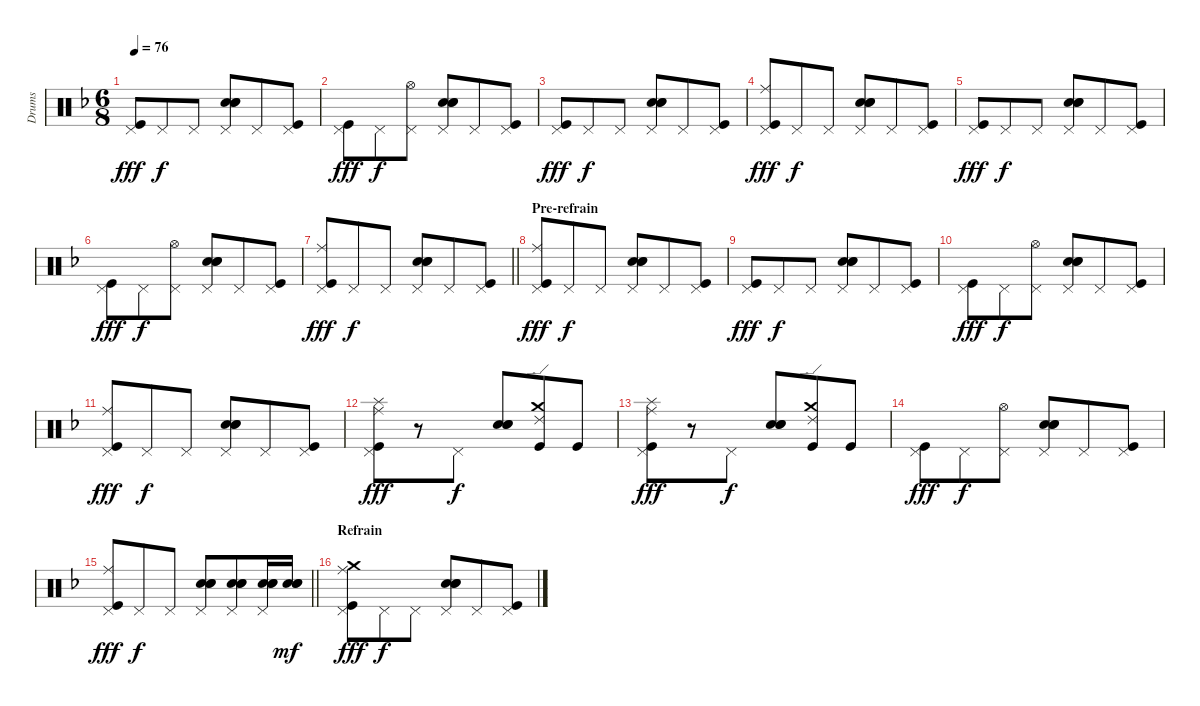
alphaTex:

\track ("Drums" "Drums") {instrument percussion}
\staff {score}
\articulation defaults
\ts (6 8)
\tempo 76
\clef neutral
\ks f
("Pedal Hi-Hat (hit)" "Kick (hit)").8{dy fff} "Pedal Hi-Hat (hit)".8{dy f} "Pedal Hi-Hat (hit)".8 ("Pedal Hi-Hat (hit)" "Metronome (bell)" "Electric Snare (hit)" "Snare (hit) 2").8 "Pedal Hi-Hat (hit)".8 ("Pedal Hi-Hat (hit)" "Kick (hit)").8 |
("Pedal Hi-Hat (hit)" "Kick (hit)").8{dy fff} "Pedal Hi-Hat (hit)".8{dy f} ("Pedal Hi-Hat (hit)" "Hi-Hat (open)").8 ("Pedal Hi-Hat (hit)" "Metronome (bell)" "Electric Snare (hit)" "Snare (hit) 2").8 "Pedal Hi-Hat (hit)".8 ("Pedal Hi-Hat (hit)" "Kick (hit)").8 |
("Pedal Hi-Hat (hit)" "Kick (hit)").8{dy fff} "Pedal Hi-Hat (hit)".8{dy f} "Pedal Hi-Hat (hit)".8 ("Pedal Hi-Hat (hit)" "Metronome (bell)" "Electric Snare (hit)" "Snare (hit) 2").8 "Pedal Hi-Hat (hit)".8 ("Pedal Hi-Hat (hit)" "Kick (hit)").8 |
("Pedal Hi-Hat (hit)" "Ride (middle)" "Kick (hit)").8{dy fff} "Pedal Hi-Hat (hit)".8{dy f} "Pedal Hi-Hat (hit)".8 ("Pedal Hi-Hat (hit)" "Metronome (bell)" "Electric Snare (hit)" "Snare (hit) 2").8 "Pedal Hi-Hat (hit)".8 ("Pedal Hi-Hat (hit)" "Kick (hit)").8 |
("Pedal Hi-Hat (hit)" "Kick (hit)").8{dy fff} "Pedal Hi-Hat (hit)".8{dy f} "Pedal Hi-Hat (hit)".8 ("Pedal Hi-Hat (hit)" "Metronome (bell)" "Electric Snare (hit)" "Snare (hit) 2").8 "Pedal Hi-Hat (hit)".8 ("Pedal Hi-Hat (hit)" "Kick (hit)").8 |
("Pedal Hi-Hat (hit)" "Kick (hit)").8{dy fff} "Pedal Hi-Hat (hit)".8{dy f} ("Pedal Hi-Hat (hit)" "Hi-Hat (open)").8 ("Pedal Hi-Hat (hit)" "Metronome (bell)" "Electric Snare (hit)" "Snare (hit) 2").8 "Pedal Hi-Hat (hit)".8 ("Pedal Hi-Hat (hit)" "Kick (hit)").8 |
\barLineRight lightlight
("Pedal Hi-Hat (hit)" "Ride (middle)" "Kick (hit)").8{dy fff} "Pedal Hi-Hat (hit)".8{dy f} "Pedal Hi-Hat (hit)".8 ("Pedal Hi-Hat (hit)" "Metronome (bell)" "Electric Snare (hit)" "Snare (hit) 2").8 "Pedal Hi-Hat (hit)".8 ("Pedal Hi-Hat (hit)" "Kick (hit)").8 |
\section ("" "Pre-refrain")
("Pedal Hi-Hat (hit)" "Ride (middle)" "Kick (hit)").8{dy fff} "Pedal Hi-Hat (hit)".8{dy f} "Pedal Hi-Hat (hit)".8 ("Pedal Hi-Hat (hit)" "Metronome (bell)" "Electric Snare (hit)" "Snare (hit) 2").8 "Pedal Hi-Hat (hit)".8 ("Pedal Hi-Hat (hit)" "Kick (hit)").8 |
("Pedal Hi-Hat (hit)" "Kick (hit)").8{dy fff} "Pedal Hi-Hat (hit)".8{dy f} "Pedal Hi-Hat (hit)".8 ("Pedal Hi-Hat (hit)" "Metronome (bell)" "Electric Snare (hit)" "Snare (hit) 2").8 "Pedal Hi-Hat (hit)".8 ("Pedal Hi-Hat (hit)" "Kick (hit)").8 |
("Pedal Hi-Hat (hit)" "Kick (hit)").8{dy fff} "Pedal Hi-Hat (hit)".8{dy f} ("Pedal Hi-Hat (hit)" "Hi-Hat (open)").8 ("Pedal Hi-Hat (hit)" "Metronome (bell)" "Electric Snare (hit)" "Snare (hit) 2").8 "Pedal Hi-Hat (hit)".8 ("Pedal Hi-Hat (hit)" "Kick (hit)").8 |
("Pedal Hi-Hat (hit)" "Ride (middle)" "Kick (hit)").8{dy fff} "Pedal Hi-Hat (hit)".8{dy f} "Pedal Hi-Hat (hit)".8 ("Pedal Hi-Hat (hit)" "Metronome (bell)" "Electric Snare (hit)" "Snare (hit) 2").8 "Pedal Hi-Hat (hit)".8 ("Pedal Hi-Hat (hit)" "Kick (hit)").8 |
("Pedal Hi-Hat (hit)" "Ride (middle)" "Splash (hit)" "Kick (hit)").8{dy fff} r.8 "Pedal Hi-Hat (hit)".8{dy f} ("Metronome (bell)" "Electric Snare (hit)" "Snare (hit) 2").8 ("Crash medium (hit)" "Ride (edge) 2" "Kick (hit)").8 "Kick (hit)".8 |
("Pedal Hi-Hat (hit)" "Ride (middle)" "Splash (hit)" "Kick (hit)").8{dy fff} r.8 "Pedal Hi-Hat (hit)".8{dy f} ("Metronome (bell)" "Electric Snare (hit)" "Snare (hit) 2").8 ("Crash medium (hit)" "Ride (edge) 2" "Kick (hit)").8 "Kick (hit)".8 |
("Pedal Hi-Hat (hit)" "Kick (hit)").8{dy fff} "Pedal Hi-Hat (hit)".8{dy f} ("Pedal Hi-Hat (hit)" "Hi-Hat (open)").8 ("Pedal Hi-Hat (hit)" "Metronome (bell)" "Electric Snare (hit)" "Snare (hit) 2").8 "Pedal Hi-Hat (hit)".8 ("Pedal Hi-Hat (hit)" "Kick (hit)").8 |
\barLineRight lightlight
("Pedal Hi-Hat (hit)" "Ride (middle)" "Kick (hit)").8{dy fff} "Pedal Hi-Hat (hit)".8{dy f} "Pedal Hi-Hat (hit)".8 ("Pedal Hi-Hat (hit)" "Metronome (bell)" "Electric Snare (hit)" "Snare (hit) 2").8 ("Pedal Hi-Hat (hit)" "Metronome (bell)" "Electric Snare (hit)" "Snare (hit) 2").8 ("Pedal Hi-Hat (hit)" "Metronome (bell)" "Electric Snare (hit)" "Snare (hit) 2").16 ("Metronome (bell)" "Electric Snare (hit)" "Snare (hit) 2").16{dy mf} |
\section ("" "Refrain")
("Pedal Hi-Hat (hit)" "Ride (middle)" "Crash medium (hit)" "Kick (hit)").8{dy fff} "Pedal Hi-Hat (hit)".8{dy f} "Pedal Hi-Hat (hit)".8 ("Pedal Hi-Hat (hit)" "Metronome (bell)" "Electric Snare (hit)" "Snare (hit) 2").8 "Pedal Hi-Hat (hit)".8 ("Pedal Hi-Hat (hit)" "Kick (hit)").8
